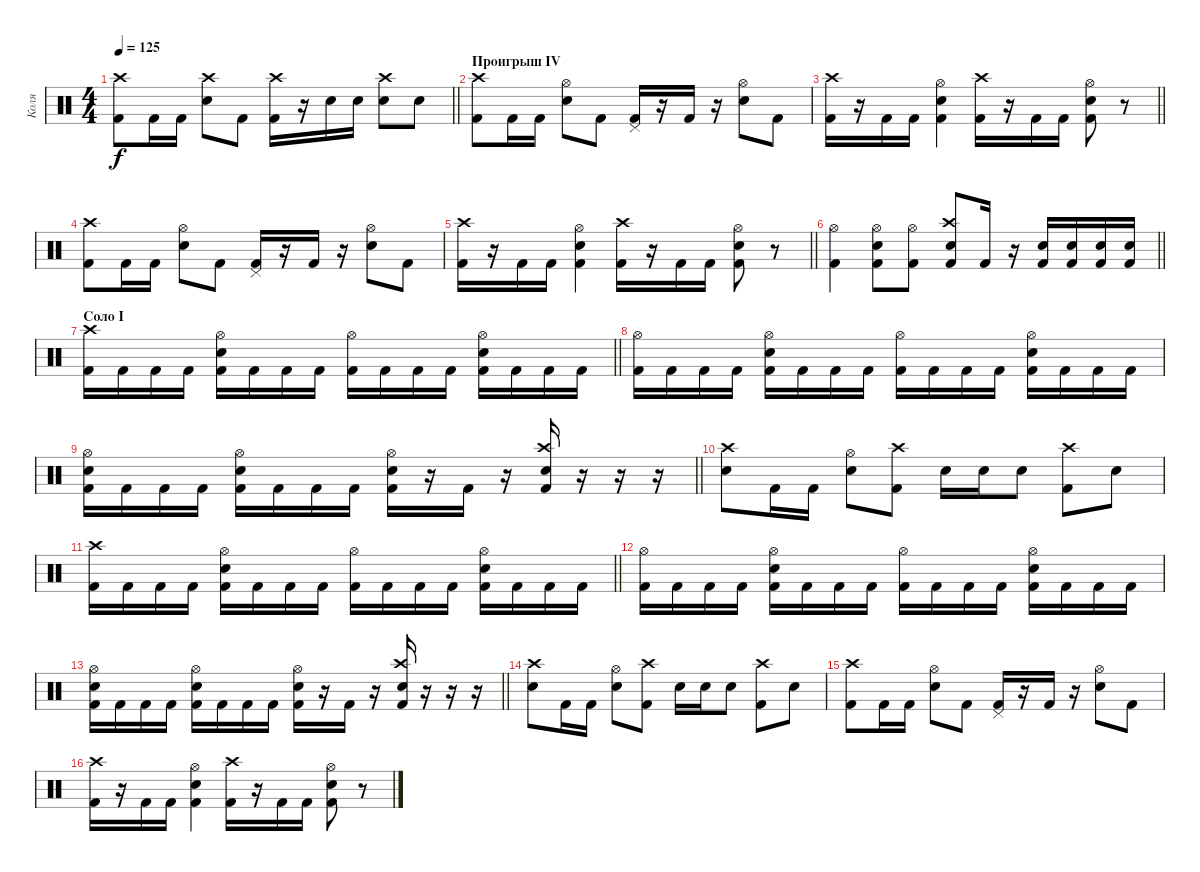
\track ("Коля" "Коля") {instrument percussion}
\staff {score}
\articulation defaults
\ts (4 4)
\tempo 125
\clef neutral
\barLineRight lightlight
\ks c
("Kick (hit) 2" "Crash high (hit)").8{dy f} "Kick (hit) 2".16 "Kick (hit) 2".16 ("Electric Snare (hit)" "Crash high (hit)").8 "Kick (hit) 2".8 ("Kick (hit) 2" "Crash high (hit)").16 r.16 "Electric Snare (hit)".16 "Electric Snare (hit)".16 ("Electric Snare (hit)" "Crash high (hit)").8 "Electric Snare (hit)".8 |
\section ("" "Проигрыш IV")
("Kick (hit) 2" "Crash high (hit)").8 "Kick (hit) 2".16 "Kick (hit) 2".16 ("Electric Snare (hit)" "Hi-Hat (open)").8 "Kick (hit) 2".8 ("Kick (hit) 2" "Pedal Hi-Hat (hit)").16 r.16 "Kick (hit) 2".16 r.16 ("Electric Snare (hit)" "Hi-Hat (open)").8 "Kick (hit) 2".8 |
\barLineRight lightlight
("Kick (hit) 2" "Crash high (hit)").16 r.16 "Kick (hit) 2".16 "Kick (hit) 2".16 ("Kick (hit) 2" "Electric Snare (hit)" "Hi-Hat (open)").4 ("Kick (hit) 2" "Crash high (hit)").16 r.16 "Kick (hit) 2".16 "Kick (hit) 2".16 ("Kick (hit) 2" "Electric Snare (hit)" "Hi-Hat (open)").8 r.8 |
("Kick (hit) 2" "Crash high (hit)").8 "Kick (hit) 2".16 "Kick (hit) 2".16 ("Electric Snare (hit)" "Hi-Hat (open)").8 "Kick (hit) 2".8 ("Kick (hit) 2" "Pedal Hi-Hat (hit)").16 r.16 "Kick (hit) 2".16 r.16 ("Electric Snare (hit)" "Hi-Hat (open)").8 "Kick (hit) 2".8 |
\barLineRight lightlight
("Kick (hit) 2" "Crash high (hit)").16 r.16 "Kick (hit) 2".16 "Kick (hit) 2".16 ("Kick (hit) 2" "Electric Snare (hit)" "Hi-Hat (open)").4 ("Kick (hit) 2" "Crash high (hit)").16 r.16 "Kick (hit) 2".16 "Kick (hit) 2".16 ("Kick (hit) 2" "Electric Snare (hit)" "Hi-Hat (open)").8 r.8 |
\barLineRight lightlight
("Kick (hit) 2" "Hi-Hat (open)").4 ("Kick (hit) 2" "Electric Snare (hit)" "Hi-Hat (open)").8 ("Kick (hit) 2" "Hi-Hat (open)").8 ("Kick (hit) 2" "Electric Snare (hit)" "Crash high (hit)").8 "Kick (hit) 2".16 r.16 ("Kick (hit) 2" "Electric Snare (hit)").16 ("Kick (hit) 2" "Electric Snare (hit)").16 ("Kick (hit) 2" "Electric Snare (hit)").16 ("Kick (hit) 2" "Electric Snare (hit)").16 |
\section ("" "Соло I")
\barLineRight lightlight
("Kick (hit) 2" "Crash high (hit)").16 "Kick (hit) 2".16 "Kick (hit) 2".16 "Kick (hit) 2".16 ("Kick (hit) 2" "Electric Snare (hit)" "Hi-Hat (open)").16 "Kick (hit) 2".16 "Kick (hit) 2".16 "Kick (hit) 2".16 ("Kick (hit) 2" "Hi-Hat (open)").16 "Kick (hit) 2".16 "Kick (hit) 2".16 "Kick (hit) 2".16 ("Kick (hit) 2" "Electric Snare (hit)" "Hi-Hat (open)").16 "Kick (hit) 2".16 "Kick (hit) 2".16 "Kick (hit) 2".16 |
("Kick (hit) 2" "Hi-Hat (open)").16 "Kick (hit) 2".16 "Kick (hit) 2".16 "Kick (hit) 2".16 ("Kick (hit) 2" "Electric Snare (hit)" "Hi-Hat (open)").16 "Kick (hit) 2".16 "Kick (hit) 2".16 "Kick (hit) 2".16 ("Kick (hit) 2" "Hi-Hat (open)").16 "Kick (hit) 2".16 "Kick (hit) 2".16 "Kick (hit) 2".16 ("Kick (hit) 2" "Electric Snare (hit)" "Hi-Hat (open)").16 "Kick (hit) 2".16 "Kick (hit) 2".16 "Kick (hit) 2".16 |
\barLineRight lightlight
("Kick (hit) 2" "Electric Snare (hit)" "Hi-Hat (open)").16 "Kick (hit) 2".16 "Kick (hit) 2".16 "Kick (hit) 2".16 ("Kick (hit) 2" "Electric Snare (hit)" "Hi-Hat (open)").16 "Kick (hit) 2".16 "Kick (hit) 2".16 "Kick (hit) 2".16 ("Kick (hit) 2" "Electric Snare (hit)" "Hi-Hat (open)").16 r.16 "Kick (hit) 2".16 r.16 ("Kick (hit) 2" "Electric Snare (hit)" "Crash high (hit)").16 r.16 r.16 r.16 |
("Electric Snare (hit)" "Crash high (hit)").8 "Kick (hit) 2".16 "Kick (hit) 2".16 ("Electric Snare (hit)" "Hi-Hat (open)").8 ("Kick (hit) 2" "Crash high (hit)").8 "Electric Snare (hit)".16 "Electric Snare (hit)".16 "Electric Snare (hit)".8 ("Kick (hit) 2" "Crash high (hit)").8 "Electric Snare (hit)".8 |
\barLineRight lightlight
("Kick (hit) 2" "Crash high (hit)").16 "Kick (hit) 2".16 "Kick (hit) 2".16 "Kick (hit) 2".16 ("Kick (hit) 2" "Electric Snare (hit)" "Hi-Hat (open)").16 "Kick (hit) 2".16 "Kick (hit) 2".16 "Kick (hit) 2".16 ("Kick (hit) 2" "Hi-Hat (open)").16 "Kick (hit) 2".16 "Kick (hit) 2".16 "Kick (hit) 2".16 ("Kick (hit) 2" "Electric Snare (hit)" "Hi-Hat (open)").16 "Kick (hit) 2".16 "Kick (hit) 2".16 "Kick (hit) 2".16 |
("Kick (hit) 2" "Hi-Hat (open)").16 "Kick (hit) 2".16 "Kick (hit) 2".16 "Kick (hit) 2".16 ("Kick (hit) 2" "Electric Snare (hit)" "Hi-Hat (open)").16 "Kick (hit) 2".16 "Kick (hit) 2".16 "Kick (hit) 2".16 ("Kick (hit) 2" "Hi-Hat (open)").16 "Kick (hit) 2".16 "Kick (hit) 2".16 "Kick (hit) 2".16 ("Kick (hit) 2" "Electric Snare (hit)" "Hi-Hat (open)").16 "Kick (hit) 2".16 "Kick (hit) 2".16 "Kick (hit) 2".16 |
\barLineRight lightlight
("Kick (hit) 2" "Electric Snare (hit)" "Hi-Hat (open)").16 "Kick (hit) 2".16 "Kick (hit) 2".16 "Kick (hit) 2".16 ("Kick (hit) 2" "Electric Snare (hit)" "Hi-Hat (open)").16 "Kick (hit) 2".16 "Kick (hit) 2".16 "Kick (hit) 2".16 ("Kick (hit) 2" "Electric Snare (hit)" "Hi-Hat (open)").16 r.16 "Kick (hit) 2".16 r.16 ("Kick (hit) 2" "Electric Snare (hit)" "Crash high (hit)").16 r.16 r.16 r.16 |
("Electric Snare (hit)" "Crash high (hit)").8 "Kick (hit) 2".16 "Kick (hit) 2".16 ("Electric Snare (hit)" "Hi-Hat (open)").8 ("Kick (hit) 2" "Crash high (hit)").8 "Electric Snare (hit)".16 "Electric Snare (hit)".16 "Electric Snare (hit)".8 ("Kick (hit) 2" "Crash high (hit)").8 "Electric Snare (hit)".8 |
("Kick (hit) 2" "Crash high (hit)").8 "Kick (hit) 2".16 "Kick (hit) 2".16 ("Electric Snare (hit)" "Hi-Hat (open)").8 "Kick (hit) 2".8 ("Kick (hit) 2" "Pedal Hi-Hat (hit)").16 r.16 "Kick (hit) 2".16 r.16 ("Electric Snare (hit)" "Hi-Hat (open)").8 "Kick (hit) 2".8 |
("Kick (hit) 2" "Crash high (hit)").16 r.16 "Kick (hit) 2".16 "Kick (hit) 2".16 ("Kick (hit) 2" "Electric Snare (hit)" "Hi-Hat (open)").4 ("Kick (hit) 2" "Crash high (hit)").16 r.16 "Kick (hit) 2".16 "Kick (hit) 2".16 ("Kick (hit) 2" "Electric Snare (hit)" "Hi-Hat (open)").8 r.8
